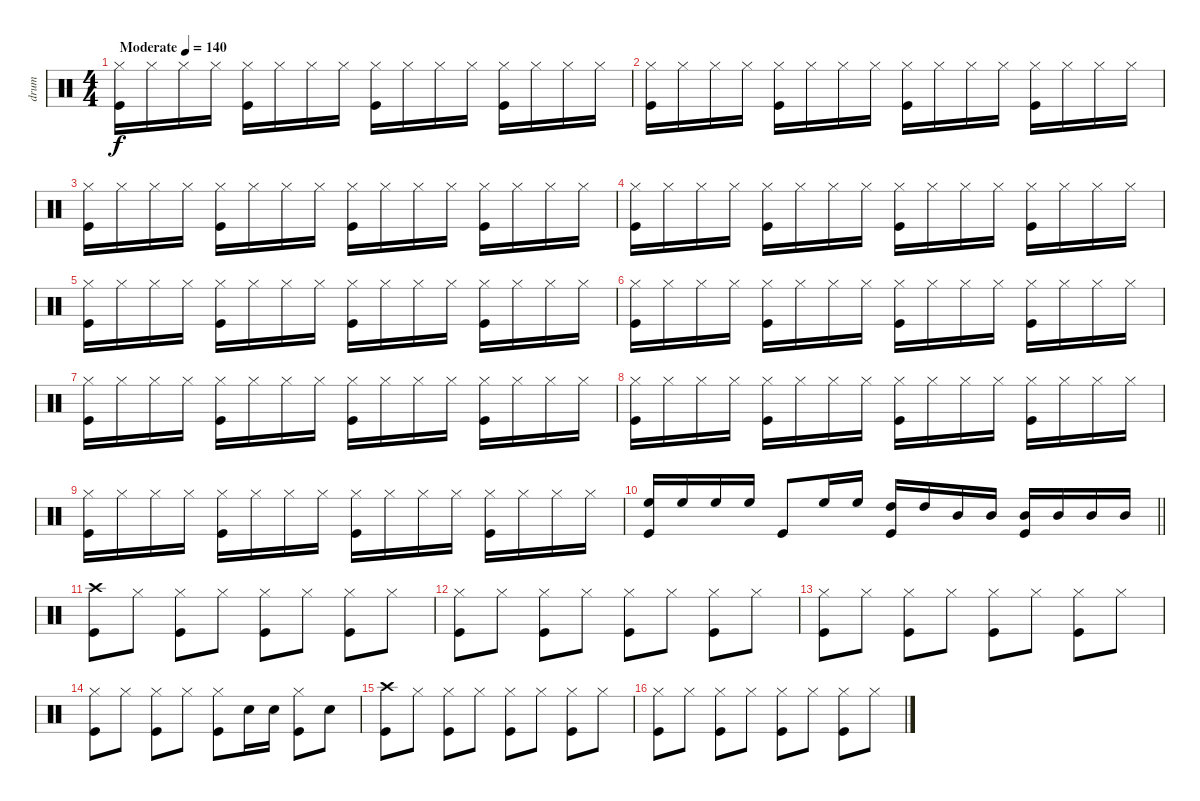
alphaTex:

\track ("drum" "drum") {instrument percussion}
\staff {score}
\articulation defaults
\ts (4 4)
\tempo (140 "Moderate")
\clef neutral
\ks c
("Hi-Hat (closed)" "Kick (hit)").16{dy f} "Hi-Hat (closed)".16 "Hi-Hat (closed)".16 "Hi-Hat (closed)".16 ("Hi-Hat (closed)" "Kick (hit)").16 "Hi-Hat (closed)".16 "Hi-Hat (closed)".16 "Hi-Hat (closed)".16 ("Hi-Hat (closed)" "Kick (hit)").16 "Hi-Hat (closed)".16 "Hi-Hat (closed)".16 "Hi-Hat (closed)".16 ("Hi-Hat (closed)" "Kick (hit)").16 "Hi-Hat (closed)".16 "Hi-Hat (closed)".16 "Hi-Hat (closed)".16 |
("Hi-Hat (closed)" "Kick (hit)").16 "Hi-Hat (closed)".16 "Hi-Hat (closed)".16 "Hi-Hat (closed)".16 ("Hi-Hat (closed)" "Kick (hit)").16 "Hi-Hat (closed)".16 "Hi-Hat (closed)".16 "Hi-Hat (closed)".16 ("Hi-Hat (closed)" "Kick (hit)").16 "Hi-Hat (closed)".16 "Hi-Hat (closed)".16 "Hi-Hat (closed)".16 ("Hi-Hat (closed)" "Kick (hit)").16 "Hi-Hat (closed)".16 "Hi-Hat (closed)".16 "Hi-Hat (closed)".16 |
("Hi-Hat (closed)" "Kick (hit)").16 "Hi-Hat (closed)".16 "Hi-Hat (closed)".16 "Hi-Hat (closed)".16 ("Hi-Hat (closed)" "Kick (hit)").16 "Hi-Hat (closed)".16 "Hi-Hat (closed)".16 "Hi-Hat (closed)".16 ("Hi-Hat (closed)" "Kick (hit)").16 "Hi-Hat (closed)".16 "Hi-Hat (closed)".16 "Hi-Hat (closed)".16 ("Hi-Hat (closed)" "Kick (hit)").16 "Hi-Hat (closed)".16 "Hi-Hat (closed)".16 "Hi-Hat (closed)".16 |
("Hi-Hat (closed)" "Kick (hit)").16 "Hi-Hat (closed)".16 "Hi-Hat (closed)".16 "Hi-Hat (closed)".16 ("Hi-Hat (closed)" "Kick (hit)").16 "Hi-Hat (closed)".16 "Hi-Hat (closed)".16 "Hi-Hat (closed)".16 ("Hi-Hat (closed)" "Kick (hit)").16 "Hi-Hat (closed)".16 "Hi-Hat (closed)".16 "Hi-Hat (closed)".16 ("Hi-Hat (closed)" "Kick (hit)").16 "Hi-Hat (closed)".16 "Hi-Hat (closed)".16 "Hi-Hat (closed)".16 |
("Hi-Hat (closed)" "Kick (hit)").16 "Hi-Hat (closed)".16 "Hi-Hat (closed)".16 "Hi-Hat (closed)".16 ("Hi-Hat (closed)" "Kick (hit)").16 "Hi-Hat (closed)".16 "Hi-Hat (closed)".16 "Hi-Hat (closed)".16 ("Hi-Hat (closed)" "Kick (hit)").16 "Hi-Hat (closed)".16 "Hi-Hat (closed)".16 "Hi-Hat (closed)".16 ("Hi-Hat (closed)" "Kick (hit)").16 "Hi-Hat (closed)".16 "Hi-Hat (closed)".16 "Hi-Hat (closed)".16 |
("Hi-Hat (closed)" "Kick (hit)").16 "Hi-Hat (closed)".16 "Hi-Hat (closed)".16 "Hi-Hat (closed)".16 ("Hi-Hat (closed)" "Kick (hit)").16 "Hi-Hat (closed)".16 "Hi-Hat (closed)".16 "Hi-Hat (closed)".16 ("Hi-Hat (closed)" "Kick (hit)").16 "Hi-Hat (closed)".16 "Hi-Hat (closed)".16 "Hi-Hat (closed)".16 ("Hi-Hat (closed)" "Kick (hit)").16 "Hi-Hat (closed)".16 "Hi-Hat (closed)".16 "Hi-Hat (closed)".16 |
("Hi-Hat (closed)" "Kick (hit)").16 "Hi-Hat (closed)".16 "Hi-Hat (closed)".16 "Hi-Hat (closed)".16 ("Hi-Hat (closed)" "Kick (hit)").16 "Hi-Hat (closed)".16 "Hi-Hat (closed)".16 "Hi-Hat (closed)".16 ("Hi-Hat (closed)" "Kick (hit)").16 "Hi-Hat (closed)".16 "Hi-Hat (closed)".16 "Hi-Hat (closed)".16 ("Hi-Hat (closed)" "Kick (hit)").16 "Hi-Hat (closed)".16 "Hi-Hat (closed)".16 "Hi-Hat (closed)".16 |
("Hi-Hat (closed)" "Kick (hit)").16 "Hi-Hat (closed)".16 "Hi-Hat (closed)".16 "Hi-Hat (closed)".16 ("Hi-Hat (closed)" "Kick (hit)").16 "Hi-Hat (closed)".16 "Hi-Hat (closed)".16 "Hi-Hat (closed)".16 ("Hi-Hat (closed)" "Kick (hit)").16 "Hi-Hat (closed)".16 "Hi-Hat (closed)".16 "Hi-Hat (closed)".16 ("Hi-Hat (closed)" "Kick (hit)").16 "Hi-Hat (closed)".16 "Hi-Hat (closed)".16 "Hi-Hat (closed)".16 |
("Hi-Hat (closed)" "Kick (hit)").16 "Hi-Hat (closed)".16 "Hi-Hat (closed)".16 "Hi-Hat (closed)".16 ("Hi-Hat (closed)" "Kick (hit)").16 "Hi-Hat (closed)".16 "Hi-Hat (closed)".16 "Hi-Hat (closed)".16 ("Hi-Hat (closed)" "Kick (hit)").16 "Hi-Hat (closed)".16 "Hi-Hat (closed)".16 "Hi-Hat (closed)".16 ("Hi-Hat (closed)" "Kick (hit)").16 "Hi-Hat (closed)".16 "Hi-Hat (closed)".16 "Hi-Hat (closed)".16 |
\barLineRight lightlight
("High Floor Tom (hit)" "Kick (hit)").16 "High Floor Tom (hit)".16 "High Floor Tom (hit)".16 "High Floor Tom (hit)".16 "Kick (hit)".8 "High Floor Tom (hit)".16 "High Floor Tom (hit)".16 ("High Tom (hit)" "Kick (hit)").16 "High Tom (hit)".16 "Mid Tom (hit)".16 "Mid Tom (hit)".16 ("Mid Tom (hit)" "Kick (hit)").16 "Mid Tom (hit)".16 "Mid Tom (hit)".16 "Mid Tom (hit)".16 |
("Crash high (hit)" "Kick (hit)").8 "Hi-Hat (closed)".8 ("Hi-Hat (closed)" "Kick (hit)").8 "Hi-Hat (closed)".8 ("Hi-Hat (closed)" "Kick (hit)").8 "Hi-Hat (closed)".8 ("Hi-Hat (closed)" "Kick (hit)").8 "Hi-Hat (closed)".8 |
("Hi-Hat (closed)" "Kick (hit)").8 "Hi-Hat (closed)".8 ("Hi-Hat (closed)" "Kick (hit)").8 "Hi-Hat (closed)".8 ("Hi-Hat (closed)" "Kick (hit)").8 "Hi-Hat (closed)".8 ("Hi-Hat (closed)" "Kick (hit)").8 "Hi-Hat (closed)".8 |
("Hi-Hat (closed)" "Kick (hit)").8 "Hi-Hat (closed)".8 ("Hi-Hat (closed)" "Kick (hit)").8 "Hi-Hat (closed)".8 ("Hi-Hat (closed)" "Kick (hit)").8 "Hi-Hat (closed)".8 ("Hi-Hat (closed)" "Kick (hit)").8 "Hi-Hat (closed)".8 |
("Hi-Hat (closed)" "Kick (hit)").8 "Hi-Hat (closed)".8 ("Hi-Hat (closed)" "Kick (hit)").8 "Hi-Hat (closed)".8 ("Hi-Hat (closed)" "Kick (hit)").8 "Snare (hit) 2".16 "Snare (hit) 2".16 ("Hi-Hat (closed)" "Kick (hit)").8 "Snare (hit) 2".8 |
("Crash high (hit)" "Kick (hit)").8 "Hi-Hat (closed)".8 ("Hi-Hat (closed)" "Kick (hit)").8 "Hi-Hat (closed)".8 ("Hi-Hat (closed)" "Kick (hit)").8 "Hi-Hat (closed)".8 ("Hi-Hat (closed)" "Kick (hit)").8 "Hi-Hat (closed)".8 |
("Hi-Hat (closed)" "Kick (hit)").8 "Hi-Hat (closed)".8 ("Hi-Hat (closed)" "Kick (hit)").8 "Hi-Hat (closed)".8 ("Hi-Hat (closed)" "Kick (hit)").8 "Hi-Hat (closed)".8 ("Hi-Hat (closed)" "Kick (hit)").8 "Hi-Hat (closed)".8
